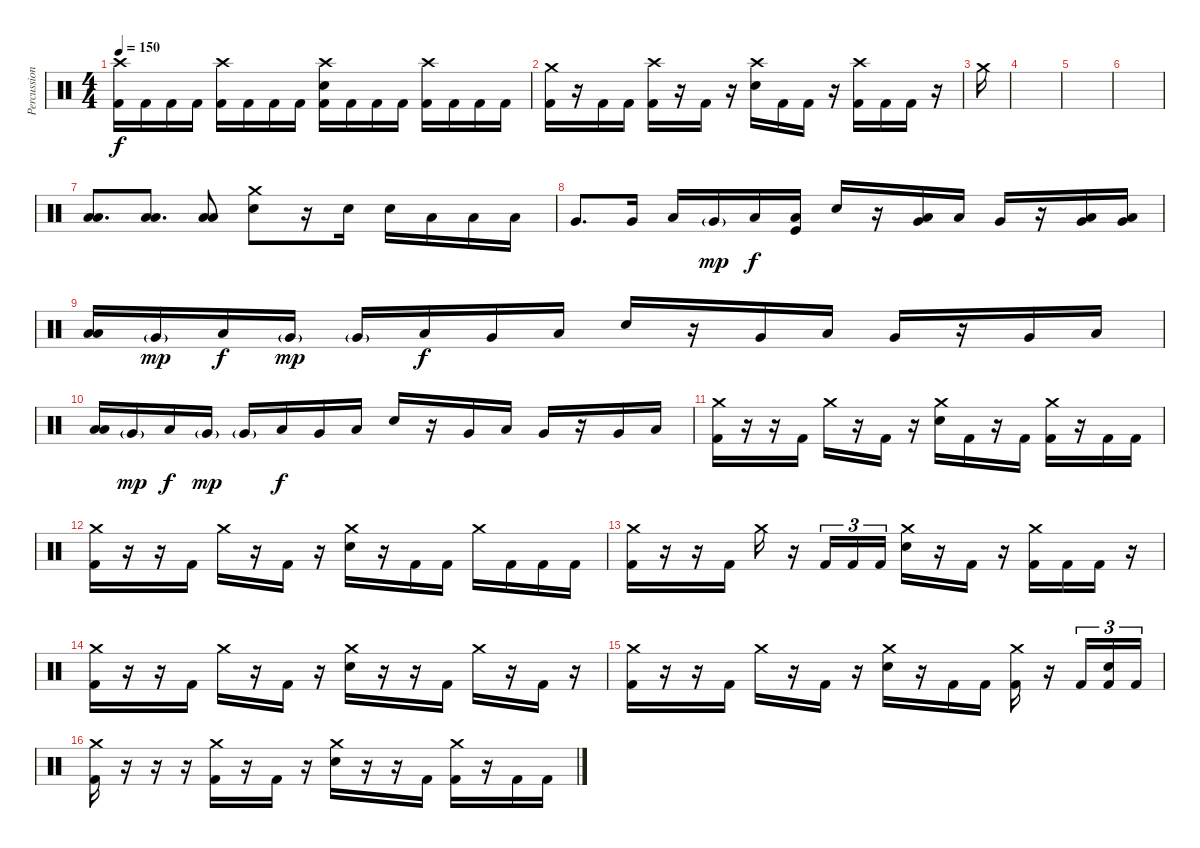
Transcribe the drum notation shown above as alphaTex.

\track ("Percussion" "Percussion") {instrument percussion}
\staff {score}
\articulation defaults
\ts (4 4)
\tempo 150
\clef neutral
\ks c
("Crash high (hit)" "Kick (hit) 2").16{dy f} "Kick (hit) 2".16 "Kick (hit) 2".16 "Kick (hit) 2".16 ("Crash high (hit)" "Kick (hit) 2").16 "Kick (hit) 2".16 "Kick (hit) 2".16 "Kick (hit) 2".16 ("Crash high (hit)" "Electric Snare (hit)" "Kick (hit) 2").16 "Kick (hit) 2".16 "Kick (hit) 2".16 "Kick (hit) 2".16 ("Crash high (hit)" "Kick (hit) 2").16 "Kick (hit) 2".16 "Kick (hit) 2".16 "Kick (hit) 2".16 |
("Crash medium (hit)" "Kick (hit) 2").16 r.16 "Kick (hit) 2".16 "Kick (hit) 2".16 ("Crash high (hit)" "Kick (hit) 2").16 r.16 "Kick (hit) 2".16 r.16 ("Crash high (hit)" "Electric Snare (hit)").16 "Kick (hit) 2".16 "Kick (hit) 2".16 r.16 ("Crash high (hit)" "Kick (hit) 2").16 "Kick (hit) 2".16 "Kick (hit) 2".16 r.16 |
"Crash medium (hit)".16 |
|
|
|
("Low Tom (hit)" "Low Floor Tom (hit)").8{d} ("Low Tom (hit)" "Low Floor Tom (hit)").8{d} ("Low Tom (hit)" "Low Floor Tom (hit)").8 ("Crash medium (hit)" "Electric Snare (hit)").8 r.16 "Electric Snare (hit)".16 "Electric Snare (hit)".16 "Low Tom (hit)".16 "Low Tom (hit)".16 "Low Tom (hit)".16 |
"Very Low Tom (hit)".8{d} "Very Low Tom (hit)".16 "Low Tom (hit)".16 "Very Low Tom (hit)"{g}.16{dy mp} "Low Tom (hit)".16{dy f} ("Low Floor Tom (hit)" "Kick (hit)").16 "Electric Snare (hit)".16 r.16 ("Very Low Tom (hit)" "Low Floor Tom (hit)").16 "Low Tom (hit)".16 "Very Low Tom (hit)".16 r.16 ("Very Low Tom (hit)" "Low Floor Tom (hit)").16 ("Very Low Tom (hit)" "Low Floor Tom (hit)").16 |
("Low Tom (hit)" "Low Floor Tom (hit)").16 "Very Low Tom (hit)"{g}.16{dy mp} "Low Tom (hit)".16{dy f} "Very Low Tom (hit)"{g}.16{dy mp} "Very Low Tom (hit)"{g}.16 "Low Floor Tom (hit)".16{dy f} "Very Low Tom (hit)".16 "Low Floor Tom (hit)".16 "Electric Snare (hit)".16 r.16 "Very Low Tom (hit)".16 "Low Tom (hit)".16 "Very Low Tom (hit)".16 r.16 "Very Low Tom (hit)".16 "Low Tom (hit)".16 |
("Low Tom (hit)" "Low Floor Tom (hit)").16 "Very Low Tom (hit)"{g}.16{dy mp} "Low Tom (hit)".16{dy f} "Very Low Tom (hit)"{g}.16{dy mp} "Very Low Tom (hit)"{g}.16 "Low Floor Tom (hit)".16{dy f} "Very Low Tom (hit)".16 "Low Floor Tom (hit)".16 "Electric Snare (hit)".16 r.16 "Very Low Tom (hit)".16 "Low Tom (hit)".16 "Very Low Tom (hit)".16 r.16 "Very Low Tom (hit)".16 "Low Tom (hit)".16 |
("Crash medium (hit)" "Kick (hit) 2").16 r.16 r.16 "Kick (hit) 2".16 "Crash medium (hit)".16 r.16 "Kick (hit) 2".16 r.16 ("Crash medium (hit)" "Electric Snare (hit)").16 "Kick (hit) 2".16 r.16 "Kick (hit) 2".16 ("Crash medium (hit)" "Kick (hit) 2").16 r.16 "Kick (hit) 2".16 "Kick (hit) 2".16 |
("Crash medium (hit)" "Kick (hit) 2").16 r.16 r.16 "Kick (hit) 2".16 "Crash medium (hit)".16 r.16 "Kick (hit) 2".16 r.16 ("Crash medium (hit)" "Electric Snare (hit)").16 r.16 "Kick (hit) 2".16 "Kick (hit) 2".16 "Crash medium (hit)".16 "Kick (hit) 2".16 "Kick (hit) 2".16 "Kick (hit) 2".16 |
("Crash medium (hit)" "Kick (hit) 2").16 r.16 r.16 "Kick (hit) 2".16 "Crash medium (hit)".16 r.16 "Kick (hit) 2".16{tu (3 2)} "Kick (hit) 2".16{tu (3 2)} "Kick (hit) 2".16{tu (3 2)} ("Crash medium (hit)" "Electric Snare (hit)").16 r.16 "Kick (hit) 2".16 r.16 ("Crash medium (hit)" "Kick (hit) 2").16 "Kick (hit) 2".16 "Kick (hit) 2".16 r.16 |
("Crash medium (hit)" "Kick (hit) 2").16 r.16 r.16 "Kick (hit) 2".16 "Crash medium (hit)".16 r.16 "Kick (hit) 2".16 r.16 ("Crash medium (hit)" "Electric Snare (hit)").16 r.16 r.16 "Kick (hit) 2".16 "Crash medium (hit)".16 r.16 "Kick (hit) 2".16 r.16 |
("Crash medium (hit)" "Kick (hit) 2").16 r.16 r.16 "Kick (hit) 2".16 "Crash medium (hit)".16 r.16 "Kick (hit) 2".16 r.16 ("Crash medium (hit)" "Electric Snare (hit)").16 r.16 "Kick (hit) 2".16 "Kick (hit) 2".16 ("Crash medium (hit)" "Kick (hit) 2").16 r.16 "Kick (hit) 2".16{tu (3 2)} ("Electric Snare (hit)" "Kick (hit) 2").16{tu (3 2)} "Kick (hit) 2".16{tu (3 2)} |
("Crash medium (hit)" "Kick (hit) 2").16 r.16 r.16 r.16 ("Crash medium (hit)" "Kick (hit) 2").16 r.16 "Kick (hit) 2".16 r.16 ("Crash medium (hit)" "Electric Snare (hit)").16 r.16 r.16 "Kick (hit) 2".16 ("Crash medium (hit)" "Kick (hit) 2").16 r.16 "Kick (hit) 2".16 "Kick (hit) 2".16
